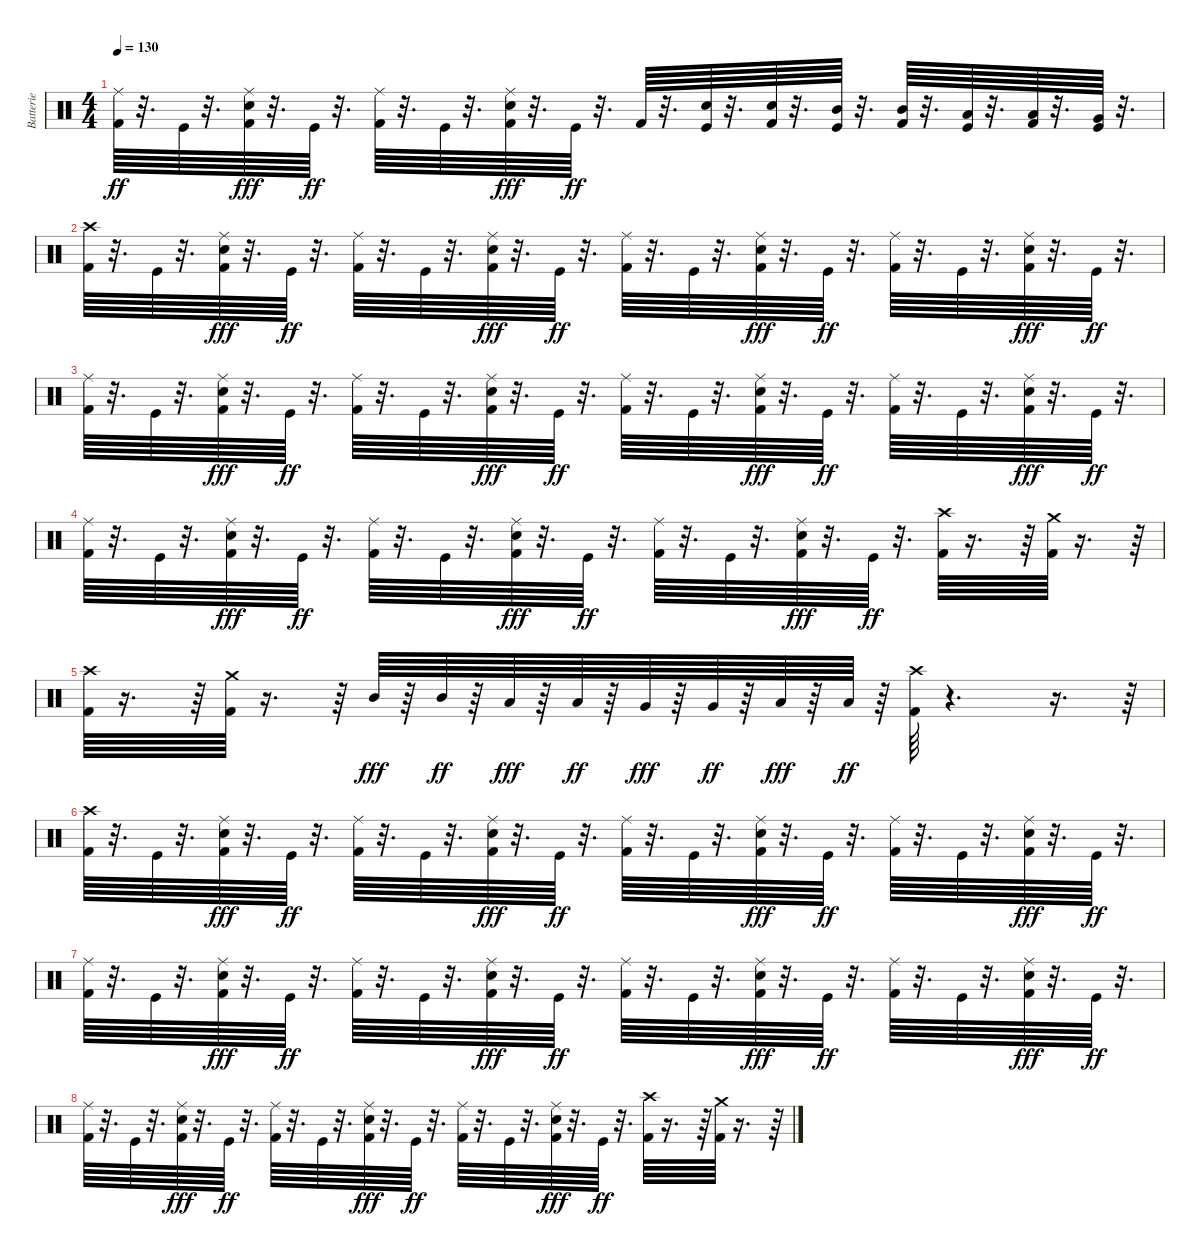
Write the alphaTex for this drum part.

\track ("Batterie" "Batterie") {instrument percussion}
\staff {score}
\articulation defaults
\ts (4 4)
\tempo 130
\clef neutral
\ks c
("Kick (hit) 2" "Ride (middle)").64{dy ff} r.32{d} "Kick (hit)".64 r.32{d} ("Kick (hit) 2" "Snare (hit) 2" "Ride (middle)").64{dy fff} r.32{d} "Kick (hit)".64{dy ff} r.32{d} ("Kick (hit) 2" "Ride (middle)").64 r.32{d} "Kick (hit)".64 r.32{d} ("Kick (hit) 2" "Snare (hit) 2" "Ride (middle)").64{dy fff} r.32{d} "Kick (hit)".64{dy ff} r.32{d} "Kick (hit) 2".64 r.32{d} ("Snare (hit) 2" "Kick (hit)").64 r.32{d} ("Snare (hit) 2" "Kick (hit) 2").64 r.32{d} ("Mid Tom (hit)" "Kick (hit)").64 r.32{d} ("Mid Tom (hit)" "Kick (hit) 2").64 r.32{d} ("Low Tom (hit)" "Kick (hit)").64 r.32{d} ("Low Tom (hit)" "Kick (hit) 2").64 r.32{d} ("Very Low Tom (hit)" "Kick (hit)").64 r.32{d} |
("Kick (hit) 2" "Crash high (hit)").64 r.32{d} "Kick (hit)".64 r.32{d} ("Kick (hit) 2" "Snare (hit) 2" "Ride (middle)").64{dy fff} r.32{d} "Kick (hit)".64{dy ff} r.32{d} ("Kick (hit) 2" "Ride (middle)").64 r.32{d} "Kick (hit)".64 r.32{d} ("Kick (hit) 2" "Snare (hit) 2" "Ride (middle)").64{dy fff} r.32{d} "Kick (hit)".64{dy ff} r.32{d} ("Kick (hit) 2" "Ride (middle)").64 r.32{d} "Kick (hit)".64 r.32{d} ("Kick (hit) 2" "Snare (hit) 2" "Ride (middle)").64{dy fff} r.32{d} "Kick (hit)".64{dy ff} r.32{d} ("Kick (hit) 2" "Ride (middle)").64 r.32{d} "Kick (hit)".64 r.32{d} ("Kick (hit) 2" "Snare (hit) 2" "Ride (middle)").64{dy fff} r.32{d} "Kick (hit)".64{dy ff} r.32{d} |
("Kick (hit) 2" "Ride (middle)").64 r.32{d} "Kick (hit)".64 r.32{d} ("Kick (hit) 2" "Snare (hit) 2" "Ride (middle)").64{dy fff} r.32{d} "Kick (hit)".64{dy ff} r.32{d} ("Kick (hit) 2" "Ride (middle)").64 r.32{d} "Kick (hit)".64 r.32{d} ("Kick (hit) 2" "Snare (hit) 2" "Ride (middle)").64{dy fff} r.32{d} "Kick (hit)".64{dy ff} r.32{d} ("Kick (hit) 2" "Ride (middle)").64 r.32{d} "Kick (hit)".64 r.32{d} ("Kick (hit) 2" "Snare (hit) 2" "Ride (middle)").64{dy fff} r.32{d} "Kick (hit)".64{dy ff} r.32{d} ("Kick (hit) 2" "Ride (middle)").64 r.32{d} "Kick (hit)".64 r.32{d} ("Kick (hit) 2" "Snare (hit) 2" "Ride (middle)").64{dy fff} r.32{d} "Kick (hit)".64{dy ff} r.32{d} |
("Kick (hit) 2" "Ride (middle)").64 r.32{d} "Kick (hit)".64 r.32{d} ("Kick (hit) 2" "Snare (hit) 2" "Ride (middle)").64{dy fff} r.32{d} "Kick (hit)".64{dy ff} r.32{d} ("Kick (hit) 2" "Ride (middle)").64 r.32{d} "Kick (hit)".64 r.32{d} ("Kick (hit) 2" "Snare (hit) 2" "Ride (middle)").64{dy fff} r.32{d} "Kick (hit)".64{dy ff} r.32{d} ("Kick (hit) 2" "Ride (middle)").64 r.32{d} "Kick (hit)".64 r.32{d} ("Kick (hit) 2" "Snare (hit) 2" "Ride (middle)").64{dy fff} r.32{d} "Kick (hit)".64{dy ff} r.32{d} ("Kick (hit) 2" "Crash high (hit)").64 r.16{d} r.64 ("Kick (hit) 2" "Crash medium (hit)").64 r.16{d} r.64 |
("Kick (hit) 2" "Crash high (hit)").64 r.16{d} r.64 ("Kick (hit) 2" "Crash medium (hit)").64 r.16{d} r.64 "Mid Tom (hit)".64{dy fff} r.64 "Mid Tom (hit)".64{dy ff} r.64 "Low Tom (hit)".64{dy fff} r.64 "Low Tom (hit)".64{dy ff} r.64 "Very Low Tom (hit)".64{dy fff} r.64 "Very Low Tom (hit)".64{dy ff} r.64 "Low Floor Tom (hit)".64{dy fff} r.64 "Low Floor Tom (hit)".64{dy ff} r.64 ("Kick (hit) 2" "Crash high (hit)").64 r.4{d} r.16{d} r.64 |
("Kick (hit) 2" "Crash high (hit)").64 r.32{d} "Kick (hit)".64 r.32{d} ("Kick (hit) 2" "Snare (hit) 2" "Ride (middle)").64{dy fff} r.32{d} "Kick (hit)".64{dy ff} r.32{d} ("Kick (hit) 2" "Ride (middle)").64 r.32{d} "Kick (hit)".64 r.32{d} ("Kick (hit) 2" "Snare (hit) 2" "Ride (middle)").64{dy fff} r.32{d} "Kick (hit)".64{dy ff} r.32{d} ("Kick (hit) 2" "Ride (middle)").64 r.32{d} "Kick (hit)".64 r.32{d} ("Kick (hit) 2" "Snare (hit) 2" "Ride (middle)").64{dy fff} r.32{d} "Kick (hit)".64{dy ff} r.32{d} ("Kick (hit) 2" "Ride (middle)").64 r.32{d} "Kick (hit)".64 r.32{d} ("Kick (hit) 2" "Snare (hit) 2" "Ride (middle)").64{dy fff} r.32{d} "Kick (hit)".64{dy ff} r.32{d} |
("Kick (hit) 2" "Ride (middle)").64 r.32{d} "Kick (hit)".64 r.32{d} ("Kick (hit) 2" "Snare (hit) 2" "Ride (middle)").64{dy fff} r.32{d} "Kick (hit)".64{dy ff} r.32{d} ("Kick (hit) 2" "Ride (middle)").64 r.32{d} "Kick (hit)".64 r.32{d} ("Kick (hit) 2" "Snare (hit) 2" "Ride (middle)").64{dy fff} r.32{d} "Kick (hit)".64{dy ff} r.32{d} ("Kick (hit) 2" "Ride (middle)").64 r.32{d} "Kick (hit)".64 r.32{d} ("Kick (hit) 2" "Snare (hit) 2" "Ride (middle)").64{dy fff} r.32{d} "Kick (hit)".64{dy ff} r.32{d} ("Kick (hit) 2" "Ride (middle)").64 r.32{d} "Kick (hit)".64 r.32{d} ("Kick (hit) 2" "Snare (hit) 2" "Ride (middle)").64{dy fff} r.32{d} "Kick (hit)".64{dy ff} r.32{d} |
("Kick (hit) 2" "Ride (middle)").64 r.32{d} "Kick (hit)".64 r.32{d} ("Kick (hit) 2" "Snare (hit) 2" "Ride (middle)").64{dy fff} r.32{d} "Kick (hit)".64{dy ff} r.32{d} ("Kick (hit) 2" "Ride (middle)").64 r.32{d} "Kick (hit)".64 r.32{d} ("Kick (hit) 2" "Snare (hit) 2" "Ride (middle)").64{dy fff} r.32{d} "Kick (hit)".64{dy ff} r.32{d} ("Kick (hit) 2" "Ride (middle)").64 r.32{d} "Kick (hit)".64 r.32{d} ("Kick (hit) 2" "Snare (hit) 2" "Ride (middle)").64{dy fff} r.32{d} "Kick (hit)".64{dy ff} r.32{d} ("Kick (hit) 2" "Crash high (hit)").64 r.16{d} r.64 ("Kick (hit) 2" "Crash medium (hit)").64 r.16{d} r.64
